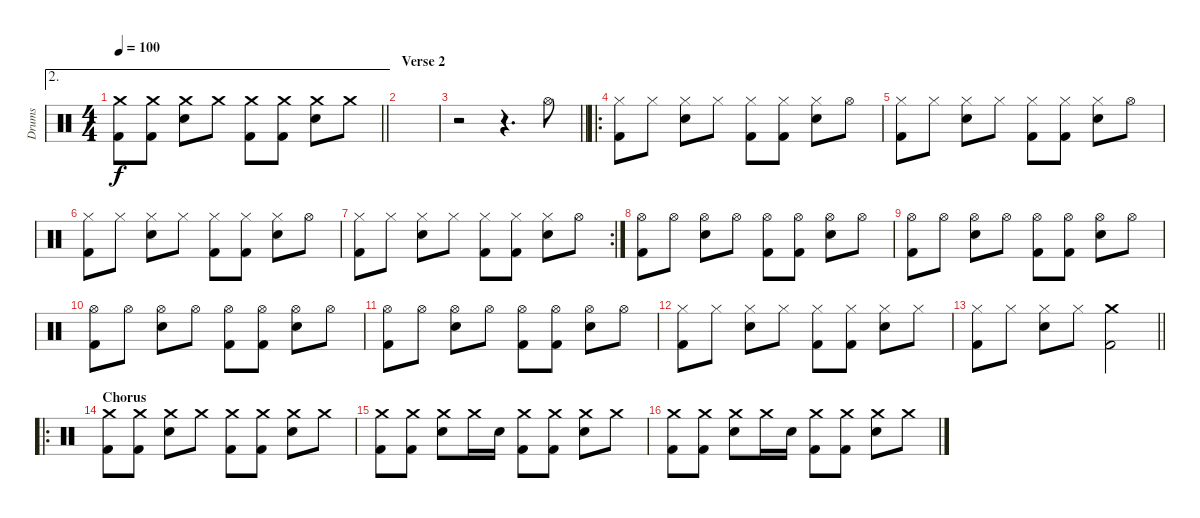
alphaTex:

\track ("Drums" "Drums") {instrument percussion}
\staff {score}
\articulation defaults
\ae 2
\ts (4 4)
\tempo 100
\clef neutral
\barLineRight lightlight
\ks c
("Crash medium (hit)" "Kick (hit) 2").8{dy f} ("Crash medium (hit)" "Kick (hit) 2").8 ("Crash medium (hit)" "Electric Snare (hit)").8 "Crash medium (hit)".8 ("Crash medium (hit)" "Kick (hit) 2").8 ("Crash medium (hit)" "Kick (hit) 2").8 ("Crash medium (hit)" "Electric Snare (hit)").8 "Crash medium (hit)".8 |
\section ("" "Verse 2")
|
\barLineRight lightlight
r.2 r.4{d} "Hi-Hat (open)".8 |
\ro
("Hi-Hat (closed)" "Kick (hit) 2").8 "Hi-Hat (closed)".8 ("Hi-Hat (closed)" "Electric Snare (hit)").8 "Hi-Hat (closed)".8 ("Hi-Hat (closed)" "Kick (hit) 2").8 ("Hi-Hat (closed)" "Kick (hit) 2").8 ("Hi-Hat (closed)" "Electric Snare (hit)").8 "Hi-Hat (open)".8 |
("Hi-Hat (closed)" "Kick (hit) 2").8 "Hi-Hat (closed)".8 ("Hi-Hat (closed)" "Electric Snare (hit)").8 "Hi-Hat (closed)".8 ("Hi-Hat (closed)" "Kick (hit) 2").8 ("Hi-Hat (closed)" "Kick (hit) 2").8 ("Hi-Hat (closed)" "Electric Snare (hit)").8 "Hi-Hat (open)".8 |
("Hi-Hat (closed)" "Kick (hit) 2").8 "Hi-Hat (closed)".8 ("Hi-Hat (closed)" "Electric Snare (hit)").8 "Hi-Hat (closed)".8 ("Hi-Hat (closed)" "Kick (hit) 2").8 ("Hi-Hat (closed)" "Kick (hit) 2").8 ("Hi-Hat (closed)" "Electric Snare (hit)").8 "Hi-Hat (open)".8 |
\rc 2
("Hi-Hat (closed)" "Kick (hit) 2").8 "Hi-Hat (closed)".8 ("Hi-Hat (closed)" "Electric Snare (hit)").8 "Hi-Hat (closed)".8 ("Hi-Hat (closed)" "Kick (hit) 2").8 ("Hi-Hat (closed)" "Kick (hit) 2").8 ("Hi-Hat (closed)" "Electric Snare (hit)").8 "Hi-Hat (open)".8 |
("Hi-Hat (open)" "Kick (hit) 2").8 "Hi-Hat (open)".8 ("Hi-Hat (open)" "Electric Snare (hit)").8 "Hi-Hat (open)".8 ("Hi-Hat (open)" "Kick (hit) 2").8 ("Hi-Hat (open)" "Kick (hit) 2").8 ("Hi-Hat (open)" "Electric Snare (hit)").8 "Hi-Hat (open)".8 |
("Hi-Hat (open)" "Kick (hit) 2").8 "Hi-Hat (open)".8 ("Hi-Hat (open)" "Electric Snare (hit)").8 "Hi-Hat (open)".8 ("Hi-Hat (open)" "Kick (hit) 2").8 ("Hi-Hat (open)" "Kick (hit) 2").8 ("Hi-Hat (open)" "Electric Snare (hit)").8 "Hi-Hat (open)".8 |
("Hi-Hat (open)" "Kick (hit) 2").8 "Hi-Hat (open)".8 ("Hi-Hat (open)" "Electric Snare (hit)").8 "Hi-Hat (open)".8 ("Hi-Hat (open)" "Kick (hit) 2").8 ("Hi-Hat (open)" "Kick (hit) 2").8 ("Hi-Hat (open)" "Electric Snare (hit)").8 "Hi-Hat (open)".8 |
("Hi-Hat (open)" "Kick (hit) 2").8 "Hi-Hat (open)".8 ("Hi-Hat (open)" "Electric Snare (hit)").8 "Hi-Hat (open)".8 ("Hi-Hat (open)" "Kick (hit) 2").8 ("Hi-Hat (open)" "Kick (hit) 2").8 ("Hi-Hat (open)" "Electric Snare (hit)").8 "Hi-Hat (open)".8 |
("Hi-Hat (closed)" "Kick (hit) 2").8 "Hi-Hat (closed)".8 ("Hi-Hat (closed)" "Electric Snare (hit)").8 "Hi-Hat (closed)".8 ("Hi-Hat (closed)" "Kick (hit) 2").8 ("Hi-Hat (closed)" "Kick (hit) 2").8 ("Hi-Hat (closed)" "Electric Snare (hit)").8 "Hi-Hat (closed)".8 |
\barLineRight lightlight
("Hi-Hat (closed)" "Kick (hit) 2").8 "Hi-Hat (closed)".8 ("Hi-Hat (closed)" "Electric Snare (hit)").8 "Hi-Hat (closed)".8 ("Crash medium (hit)" "Kick (hit) 2").2 |
\ro
\section ("" "Chorus")
("Crash medium (hit)" "Kick (hit) 2").8 ("Crash medium (hit)" "Kick (hit) 2").8 ("Crash medium (hit)" "Electric Snare (hit)").8 "Crash medium (hit)".8 ("Crash medium (hit)" "Kick (hit) 2").8 ("Crash medium (hit)" "Kick (hit) 2").8 ("Crash medium (hit)" "Electric Snare (hit)").8 "Crash medium (hit)".8 |
("Crash medium (hit)" "Kick (hit) 2").8 ("Crash medium (hit)" "Kick (hit) 2").8 ("Crash medium (hit)" "Electric Snare (hit)").8 "Crash medium (hit)".16 "Electric Snare (hit)".16 ("Crash medium (hit)" "Kick (hit) 2").8 ("Crash medium (hit)" "Kick (hit) 2").8 ("Crash medium (hit)" "Electric Snare (hit)").8 "Crash medium (hit)".8 |
("Crash medium (hit)" "Kick (hit) 2").8 ("Crash medium (hit)" "Kick (hit) 2").8 ("Crash medium (hit)" "Electric Snare (hit)").8 "Crash medium (hit)".16 "Electric Snare (hit)".16 ("Crash medium (hit)" "Kick (hit) 2").8 ("Crash medium (hit)" "Kick (hit) 2").8 ("Crash medium (hit)" "Electric Snare (hit)").8 "Crash medium (hit)".8
